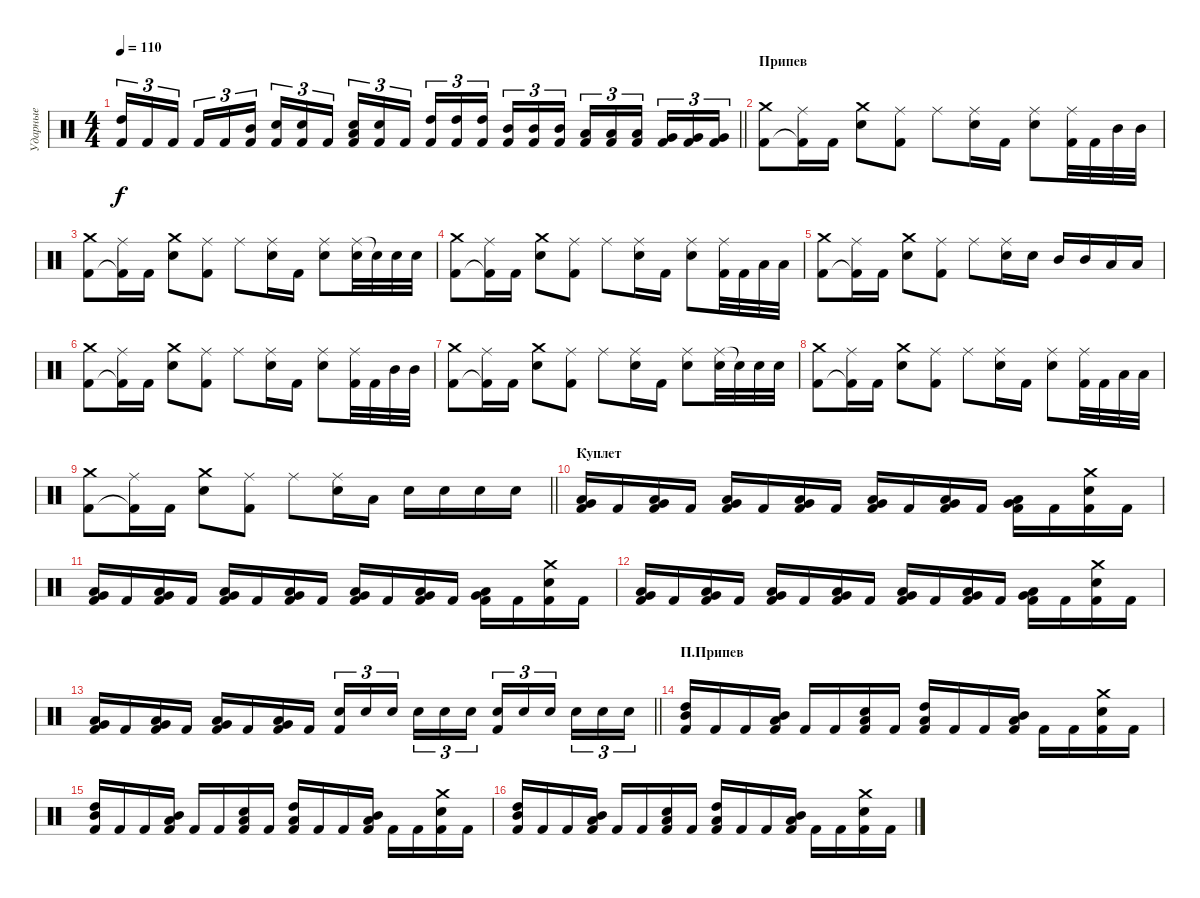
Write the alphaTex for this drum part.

\track ("Ударные" "Ударные") {instrument percussion}
\staff {score}
\articulation defaults
\ts (4 4)
\tempo 110
\clef neutral
\barLineRight lightlight
\ks c
("High Tom (hit)" "Kick (hit) 2").16{tu (3 2) dy f} "Kick (hit) 2".16{tu (3 2)} "Kick (hit) 2".16{tu (3 2) beam splitsecondary} "Kick (hit) 2".16{tu (3 2)} "Kick (hit) 2".16{tu (3 2)} ("Mid Tom (hit)" "Kick (hit) 2").16{tu (3 2)} ("Snare (hit) 2" "Kick (hit) 2").16{tu (3 2)} ("Snare (hit) 2" "Kick (hit) 2").16{tu (3 2)} "Kick (hit) 2".16{tu (3 2) beam splitsecondary} ("Low Tom (hit)" "Snare (hit) 2" "Kick (hit) 2").16{tu (3 2)} ("Snare (hit) 2" "Kick (hit) 2").16{tu (3 2)} "Kick (hit) 2".16{tu (3 2)} ("High Tom (hit)" "Kick (hit) 2").16{tu (3 2)} ("High Tom (hit)" "Kick (hit) 2").16{tu (3 2)} ("High Tom (hit)" "Kick (hit) 2").16{tu (3 2) beam splitsecondary} ("Mid Tom (hit)" "Kick (hit) 2").16{tu (3 2)} ("Mid Tom (hit)" "Kick (hit) 2").16{tu (3 2)} ("Mid Tom (hit)" "Kick (hit) 2").16{tu (3 2)} ("Low Tom (hit)" "Kick (hit) 2").16{tu (3 2)} ("Low Tom (hit)" "Kick (hit) 2").16{tu (3 2)} ("Low Tom (hit)" "Kick (hit) 2").16{tu (3 2) beam splitsecondary} ("Very Low Tom (hit)" "Kick (hit) 2").16{tu (3 2)} ("Very Low Tom (hit)" "Kick (hit) 2").16{tu (3 2)} ("Very Low Tom (hit)" "Kick (hit) 2").16{tu (3 2)} |
\section ("" "Припев")
("Crash medium (hit)" "Kick (hit) 2").8 ("Ride (middle)" "Kick (hit) 2"{t}).16 "Kick (hit) 2".16 ("Crash medium (hit)" "Snare (hit) 2").8 ("Ride (middle)" "Kick (hit) 2").8 "Ride (middle)".8 ("Ride (middle)" "Snare (hit) 2").16 "Kick (hit) 2".16 ("Ride (middle)" "Snare (hit) 2").8 ("Ride (middle)" "Kick (hit) 2").32 "Kick (hit) 2".32 "Mid Tom (hit)".32 "Mid Tom (hit)".32 |
("Crash medium (hit)" "Kick (hit) 2").8 ("Ride (middle)" "Kick (hit) 2"{t}).16 "Kick (hit) 2".16 ("Crash medium (hit)" "Snare (hit) 2").8 ("Ride (middle)" "Kick (hit) 2").8 "Ride (middle)".8 ("Ride (middle)" "Snare (hit) 2").16 "Kick (hit) 2".16 ("Ride (middle)" "Snare (hit) 2").8 ("Ride (middle)" "Snare (hit) 2").32 "Snare (hit) 2"{t}.32 "Snare (hit) 2".32 "Snare (hit) 2".32 |
("Crash medium (hit)" "Kick (hit) 2").8 ("Ride (middle)" "Kick (hit) 2"{t}).16 "Kick (hit) 2".16 ("Crash medium (hit)" "Snare (hit) 2").8 ("Ride (middle)" "Kick (hit) 2").8 "Ride (middle)".8 ("Ride (middle)" "Snare (hit) 2").16 "Kick (hit) 2".16 ("Ride (middle)" "Snare (hit) 2").8 ("Ride (middle)" "Kick (hit) 2").32 "Kick (hit) 2".32 "Low Tom (hit)".32 "Low Tom (hit)".32 |
("Crash medium (hit)" "Kick (hit) 2").8 ("Ride (middle)" "Kick (hit) 2"{t}).16 "Kick (hit) 2".16 ("Crash medium (hit)" "Snare (hit) 2").8 ("Ride (middle)" "Kick (hit) 2").8 "Ride (middle)".8 ("Ride (middle)" "Snare (hit) 2").16 "Snare (hit) 2".16 "Mid Tom (hit)".16 "Mid Tom (hit)".16 "Low Tom (hit)".16 "Low Tom (hit)".16 |
("Crash medium (hit)" "Kick (hit) 2").8 ("Ride (middle)" "Kick (hit) 2"{t}).16 "Kick (hit) 2".16 ("Crash medium (hit)" "Snare (hit) 2").8 ("Ride (middle)" "Kick (hit) 2").8 "Ride (middle)".8 ("Ride (middle)" "Snare (hit) 2").16 "Kick (hit) 2".16 ("Ride (middle)" "Snare (hit) 2").8 ("Ride (middle)" "Kick (hit) 2").32 "Kick (hit) 2".32 "Mid Tom (hit)".32 "Mid Tom (hit)".32 |
("Crash medium (hit)" "Kick (hit) 2").8 ("Ride (middle)" "Kick (hit) 2"{t}).16 "Kick (hit) 2".16 ("Crash medium (hit)" "Snare (hit) 2").8 ("Ride (middle)" "Kick (hit) 2").8 "Ride (middle)".8 ("Ride (middle)" "Snare (hit) 2").16 "Kick (hit) 2".16 ("Ride (middle)" "Snare (hit) 2").8 ("Ride (middle)" "Snare (hit) 2").32 "Snare (hit) 2"{t}.32 "Snare (hit) 2".32 "Snare (hit) 2".32 |
("Crash medium (hit)" "Kick (hit) 2").8 ("Ride (middle)" "Kick (hit) 2"{t}).16 "Kick (hit) 2".16 ("Crash medium (hit)" "Snare (hit) 2").8 ("Ride (middle)" "Kick (hit) 2").8 "Ride (middle)".8 ("Ride (middle)" "Snare (hit) 2").16 "Kick (hit) 2".16 ("Ride (middle)" "Snare (hit) 2").8 ("Ride (middle)" "Kick (hit) 2").32 "Kick (hit) 2".32 "Low Tom (hit)".32 "Low Tom (hit)".32 |
\barLineRight lightlight
("Crash medium (hit)" "Kick (hit) 2").8 ("Ride (middle)" "Kick (hit) 2"{t}).16 "Kick (hit) 2".16 ("Crash medium (hit)" "Snare (hit) 2").8 ("Ride (middle)" "Kick (hit) 2").8 "Ride (middle)".8 ("Ride (middle)" "Snare (hit) 2").16 "Low Tom (hit)".16 "Snare (hit) 2".16 "Snare (hit) 2".16 "Snare (hit) 2".16 "Snare (hit) 2".16 |
\section ("" "Куплет")
("Low Floor Tom (hit)" "Very Low Tom (hit)" "Kick (hit) 2").16 "Kick (hit) 2".16 ("Low Floor Tom (hit)" "Very Low Tom (hit)" "Kick (hit) 2").16 "Kick (hit) 2".16 ("Low Floor Tom (hit)" "Very Low Tom (hit)" "Kick (hit) 2").16 "Kick (hit) 2".16 ("Low Floor Tom (hit)" "Very Low Tom (hit)" "Kick (hit) 2").16 "Kick (hit) 2".16 ("Low Floor Tom (hit)" "Very Low Tom (hit)" "Kick (hit) 2").16 "Kick (hit) 2".16 ("Low Floor Tom (hit)" "Very Low Tom (hit)" "Kick (hit) 2").16 "Kick (hit) 2".16 ("Low Floor Tom (hit)" "Very Low Tom (hit)" "Kick (hit) 2").16 "Kick (hit) 2".16 ("Crash medium (hit)" "Snare (hit) 2" "Kick (hit) 2").16 "Kick (hit) 2".16 |
("Low Floor Tom (hit)" "Very Low Tom (hit)" "Kick (hit) 2").16 "Kick (hit) 2".16 ("Low Floor Tom (hit)" "Very Low Tom (hit)" "Kick (hit) 2").16 "Kick (hit) 2".16 ("Low Floor Tom (hit)" "Very Low Tom (hit)" "Kick (hit) 2").16 "Kick (hit) 2".16 ("Low Floor Tom (hit)" "Very Low Tom (hit)" "Kick (hit) 2").16 "Kick (hit) 2".16 ("Low Floor Tom (hit)" "Very Low Tom (hit)" "Kick (hit) 2").16 "Kick (hit) 2".16 ("Low Floor Tom (hit)" "Very Low Tom (hit)" "Kick (hit) 2").16 "Kick (hit) 2".16 ("Low Floor Tom (hit)" "Very Low Tom (hit)" "Kick (hit) 2").16 "Kick (hit) 2".16 ("Crash medium (hit)" "Snare (hit) 2" "Kick (hit) 2").16 "Kick (hit) 2".16 |
("Low Floor Tom (hit)" "Very Low Tom (hit)" "Kick (hit) 2").16 "Kick (hit) 2".16 ("Low Floor Tom (hit)" "Very Low Tom (hit)" "Kick (hit) 2").16 "Kick (hit) 2".16 ("Low Floor Tom (hit)" "Very Low Tom (hit)" "Kick (hit) 2").16 "Kick (hit) 2".16 ("Low Floor Tom (hit)" "Very Low Tom (hit)" "Kick (hit) 2").16 "Kick (hit) 2".16 ("Low Floor Tom (hit)" "Very Low Tom (hit)" "Kick (hit) 2").16 "Kick (hit) 2".16 ("Low Floor Tom (hit)" "Very Low Tom (hit)" "Kick (hit) 2").16 "Kick (hit) 2".16 ("Low Floor Tom (hit)" "Very Low Tom (hit)" "Kick (hit) 2").16 "Kick (hit) 2".16 ("Crash medium (hit)" "Snare (hit) 2" "Kick (hit) 2").16 "Kick (hit) 2".16 |
\barLineRight lightlight
("Low Floor Tom (hit)" "Very Low Tom (hit)" "Kick (hit) 2").16 "Kick (hit) 2".16 ("Low Floor Tom (hit)" "Very Low Tom (hit)" "Kick (hit) 2").16 "Kick (hit) 2".16 ("Low Floor Tom (hit)" "Very Low Tom (hit)" "Kick (hit) 2").16 "Kick (hit) 2".16 ("Low Floor Tom (hit)" "Very Low Tom (hit)" "Kick (hit) 2").16 "Kick (hit) 2".16 ("Snare (hit) 2" "Kick (hit) 2").16{tu (3 2)} "Snare (hit) 2".16{tu (3 2)} "Snare (hit) 2".16{tu (3 2) beam splitsecondary} "Snare (hit) 2".16{tu (3 2)} "Snare (hit) 2".16{tu (3 2)} "Snare (hit) 2".16{tu (3 2)} ("Snare (hit) 2" "Kick (hit) 2").16{tu (3 2)} "Snare (hit) 2".16{tu (3 2)} "Snare (hit) 2".16{tu (3 2) beam splitsecondary} "Snare (hit) 2".16{tu (3 2)} "Snare (hit) 2".16{tu (3 2)} "Snare (hit) 2".16{tu (3 2)} |
\section ("" "П.Припев")
("Mid Tom (hit)" "High Tom (hit)" "Kick (hit) 2").16 "Kick (hit) 2".16 "Kick (hit) 2".16 ("Low Tom (hit)" "Mid Tom (hit)" "Kick (hit) 2").16 "Kick (hit) 2".16 "Kick (hit) 2".16 ("Low Tom (hit)" "Snare (hit) 2" "Kick (hit) 2").16 "Kick (hit) 2".16 ("Low Tom (hit)" "High Tom (hit)" "Kick (hit) 2").16 "Kick (hit) 2".16 "Kick (hit) 2".16 ("Mid Tom (hit)" "Low Tom (hit)" "Kick (hit) 2").16 "Kick (hit) 2".16 "Kick (hit) 2".16 ("Crash medium (hit)" "Snare (hit) 2" "Kick (hit) 2").16 "Kick (hit) 2".16 |
("Mid Tom (hit)" "High Tom (hit)" "Kick (hit) 2").16 "Kick (hit) 2".16 "Kick (hit) 2".16 ("Low Tom (hit)" "Mid Tom (hit)" "Kick (hit) 2").16 "Kick (hit) 2".16 "Kick (hit) 2".16 ("Low Tom (hit)" "Snare (hit) 2" "Kick (hit) 2").16 "Kick (hit) 2".16 ("Low Tom (hit)" "High Tom (hit)" "Kick (hit) 2").16 "Kick (hit) 2".16 "Kick (hit) 2".16 ("Mid Tom (hit)" "Low Tom (hit)" "Kick (hit) 2").16 "Kick (hit) 2".16 "Kick (hit) 2".16 ("Crash medium (hit)" "Snare (hit) 2" "Kick (hit) 2").16 "Kick (hit) 2".16 |
("Mid Tom (hit)" "High Tom (hit)" "Kick (hit) 2").16 "Kick (hit) 2".16 "Kick (hit) 2".16 ("Low Tom (hit)" "Mid Tom (hit)" "Kick (hit) 2").16 "Kick (hit) 2".16 "Kick (hit) 2".16 ("Low Tom (hit)" "Snare (hit) 2" "Kick (hit) 2").16 "Kick (hit) 2".16 ("Low Tom (hit)" "High Tom (hit)" "Kick (hit) 2").16 "Kick (hit) 2".16 "Kick (hit) 2".16 ("Mid Tom (hit)" "Low Tom (hit)" "Kick (hit) 2").16 "Kick (hit) 2".16 "Kick (hit) 2".16 ("Crash medium (hit)" "Snare (hit) 2" "Kick (hit) 2").16 "Kick (hit) 2".16
